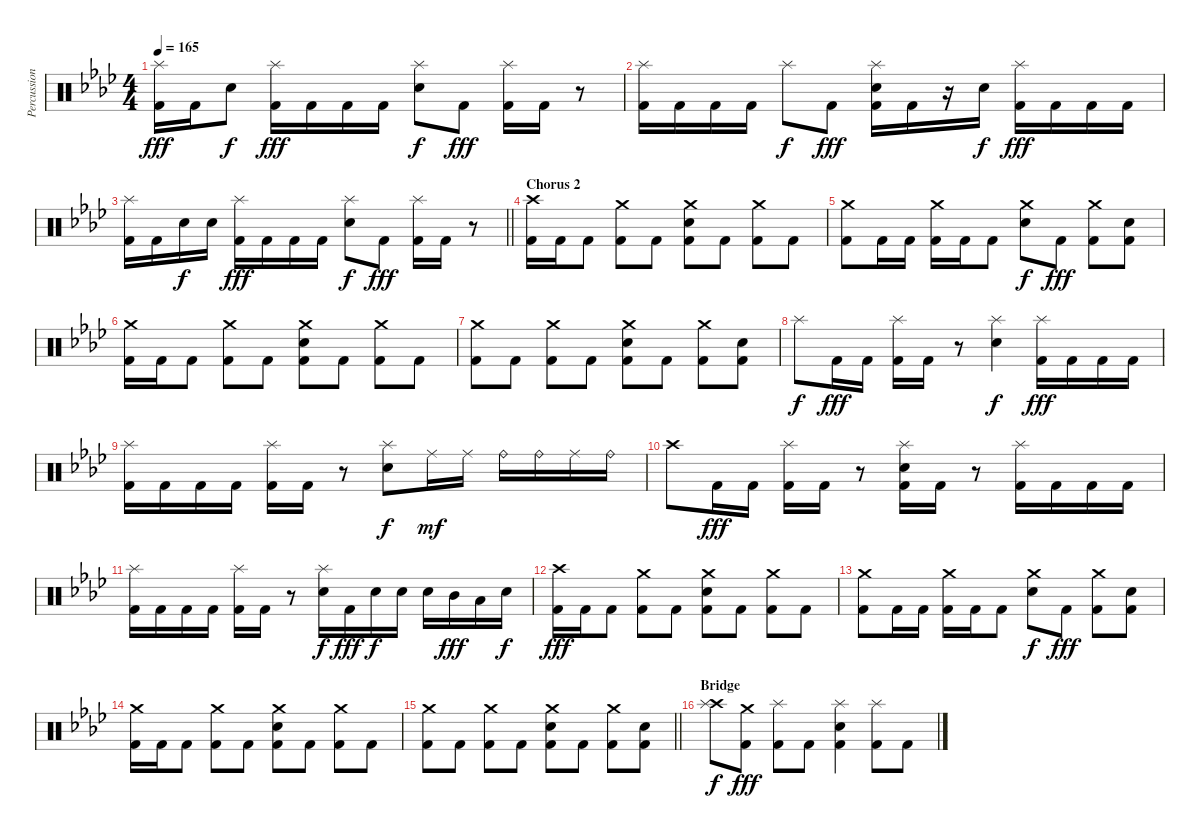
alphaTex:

\track ("Percussion" "Percussion") {instrument percussion}
\staff {score}
\articulation defaults
\ts (4 4)
\tempo 165
\clef neutral
\ks ab
("Splash (hit)" "Kick (hit) 2").16{dy fff} "Kick (hit) 2".16 "Electric Snare (hit)".8{dy f} ("Splash (hit)" "Kick (hit) 2").16{dy fff} "Kick (hit) 2".16 "Kick (hit) 2".16 "Kick (hit) 2".16 ("Splash (hit)" "Electric Snare (hit)").8{dy f} "Kick (hit) 2".8{dy fff} ("Splash (hit)" "Kick (hit) 2").16 "Kick (hit) 2".16 r.8 |
("Splash (hit)" "Kick (hit) 2").16 "Kick (hit) 2".16 "Kick (hit) 2".16 "Kick (hit) 2".16 "Splash (hit)".8{dy f} "Kick (hit) 2".8{dy fff} ("Splash (hit)" "Electric Snare (hit)" "Kick (hit) 2").16 "Kick (hit) 2".16 r.16 "Electric Snare (hit)".16{dy f} ("Splash (hit)" "Kick (hit) 2").16{dy fff} "Kick (hit) 2".16 "Kick (hit) 2".16 "Kick (hit) 2".16 |
\barLineRight lightlight
("Splash (hit)" "Kick (hit) 2").16 "Kick (hit) 2".16 "Electric Snare (hit)".16{dy f} "Electric Snare (hit)".16 ("Splash (hit)" "Kick (hit) 2").16{dy fff} "Kick (hit) 2".16 "Kick (hit) 2".16 "Kick (hit) 2".16 ("Splash (hit)" "Electric Snare (hit)").8{dy f} "Kick (hit) 2".8{dy fff} ("Splash (hit)" "Kick (hit) 2").16 "Kick (hit) 2".16 r.8 |
\section ("" "Chorus 2")
("Crash high (hit)" "Kick (hit) 2").16 "Kick (hit) 2".16 "Kick (hit) 2".8 ("Crash medium (hit)" "Kick (hit) 2").8 "Kick (hit) 2".8 ("Crash medium (hit)" "Electric Snare (hit)" "Kick (hit) 2").8 "Kick (hit) 2".8 ("Crash medium (hit)" "Kick (hit) 2").8 "Kick (hit) 2".8 |
("Crash medium (hit)" "Kick (hit) 2").8 "Kick (hit) 2".16 "Kick (hit) 2".16 ("Crash medium (hit)" "Kick (hit) 2").16 "Kick (hit) 2".16 "Kick (hit) 2".8 ("Crash medium (hit)" "Electric Snare (hit)").8{dy f} "Kick (hit) 2".8{dy fff} ("Crash medium (hit)" "Kick (hit) 2").8 ("Electric Snare (hit)" "Kick (hit) 2").8 |
("Crash medium (hit)" "Kick (hit) 2").16 "Kick (hit) 2".16 "Kick (hit) 2".8 ("Crash medium (hit)" "Kick (hit) 2").8 "Kick (hit) 2".8 ("Crash medium (hit)" "Electric Snare (hit)" "Kick (hit) 2").8 "Kick (hit) 2".8 ("Crash medium (hit)" "Kick (hit) 2").8 "Kick (hit) 2".8 |
("Crash medium (hit)" "Kick (hit) 2").8 "Kick (hit) 2".8 ("Crash medium (hit)" "Kick (hit) 2").8 "Kick (hit) 2".8 ("Crash medium (hit)" "Electric Snare (hit)" "Kick (hit) 2").8 "Kick (hit) 2".8 ("Crash medium (hit)" "Kick (hit) 2").8 ("Electric Snare (hit)" "Kick (hit) 2").8 |
"Splash (hit)".8{dy f} "Kick (hit) 2".16{dy fff} "Kick (hit) 2".16 ("Splash (hit)" "Kick (hit) 2").16 "Kick (hit) 2".16 r.8 ("Splash (hit)" "Electric Snare (hit)").4{dy f} ("Splash (hit)" "Kick (hit) 2").16{dy fff} "Kick (hit) 2".16 "Kick (hit) 2".16 "Kick (hit) 2".16 |
("Splash (hit)" "Kick (hit) 2").16 "Kick (hit) 2".16 "Kick (hit) 2".16 "Kick (hit) 2".16 ("Splash (hit)" "Kick (hit) 2").16 "Kick (hit) 2".16 r.8 ("Splash (hit)" "Electric Snare (hit)").8{dy f} "Ride (middle)".16{dy mf} "Ride (middle)".16 "Ride (bell)".16 "Ride (bell)".16 "Ride (middle)".16 "Ride (bell)".16 |
"Crash high (hit)".8 "Kick (hit) 2".16{dy fff} "Kick (hit) 2".16 ("Splash (hit)" "Kick (hit) 2").16 "Kick (hit) 2".16 r.8 ("Splash (hit)" "Electric Snare (hit)" "Kick (hit) 2").16 "Kick (hit) 2".16 r.8 ("Splash (hit)" "Kick (hit) 2").16 "Kick (hit) 2".16 "Kick (hit) 2".16 "Kick (hit) 2".16 |
("Splash (hit)" "Kick (hit) 2").16 "Kick (hit) 2".16 "Kick (hit) 2".16 "Kick (hit) 2".16 ("Splash (hit)" "Kick (hit) 2").16 "Kick (hit) 2".16 r.8 ("Splash (hit)" "Electric Snare (hit)").16{dy f} "Kick (hit) 2".16{dy fff} "Electric Snare (hit)".16{dy f} "Electric Snare (hit)".16 "Electric Snare (hit)".16 "Mid Tom (hit)".16{dy fff} "Low Tom (hit)".16 "Electric Snare (hit)".16{dy f} |
("Crash high (hit)" "Kick (hit) 2").16{dy fff} "Kick (hit) 2".16 "Kick (hit) 2".8 ("Crash medium (hit)" "Kick (hit) 2").8 "Kick (hit) 2".8 ("Crash medium (hit)" "Electric Snare (hit)" "Kick (hit) 2").8 "Kick (hit) 2".8 ("Crash medium (hit)" "Kick (hit) 2").8 "Kick (hit) 2".8 |
("Crash medium (hit)" "Kick (hit) 2").8 "Kick (hit) 2".16 "Kick (hit) 2".16 ("Crash medium (hit)" "Kick (hit) 2").16 "Kick (hit) 2".16 "Kick (hit) 2".8 ("Crash medium (hit)" "Electric Snare (hit)").8{dy f} "Kick (hit) 2".8{dy fff} ("Crash medium (hit)" "Kick (hit) 2").8 ("Electric Snare (hit)" "Kick (hit) 2").8 |
("Crash medium (hit)" "Kick (hit) 2").16 "Kick (hit) 2".16 "Kick (hit) 2".8 ("Crash medium (hit)" "Kick (hit) 2").8 "Kick (hit) 2".8 ("Crash medium (hit)" "Electric Snare (hit)" "Kick (hit) 2").8 "Kick (hit) 2".8 ("Crash medium (hit)" "Kick (hit) 2").8 "Kick (hit) 2".8 |
\barLineRight lightlight
("Crash medium (hit)" "Kick (hit) 2").8 "Kick (hit) 2".8 ("Crash medium (hit)" "Kick (hit) 2").8 "Kick (hit) 2".8 ("Crash medium (hit)" "Electric Snare (hit)" "Kick (hit) 2").8 "Kick (hit) 2".8 ("Crash medium (hit)" "Kick (hit) 2").8 ("Electric Snare (hit)" "Kick (hit) 2").8 |
\section ("" "Bridge")
("Crash high (hit)" "Splash (hit)").8{dy f} ("Crash medium (hit)" "Kick (hit) 2").8{dy fff} ("Splash (hit)" "Kick (hit) 2").8 "Kick (hit) 2".8 ("Splash (hit)" "Electric Snare (hit)" "Kick (hit) 2").4 ("Splash (hit)" "Kick (hit) 2").8 "Kick (hit) 2".8
